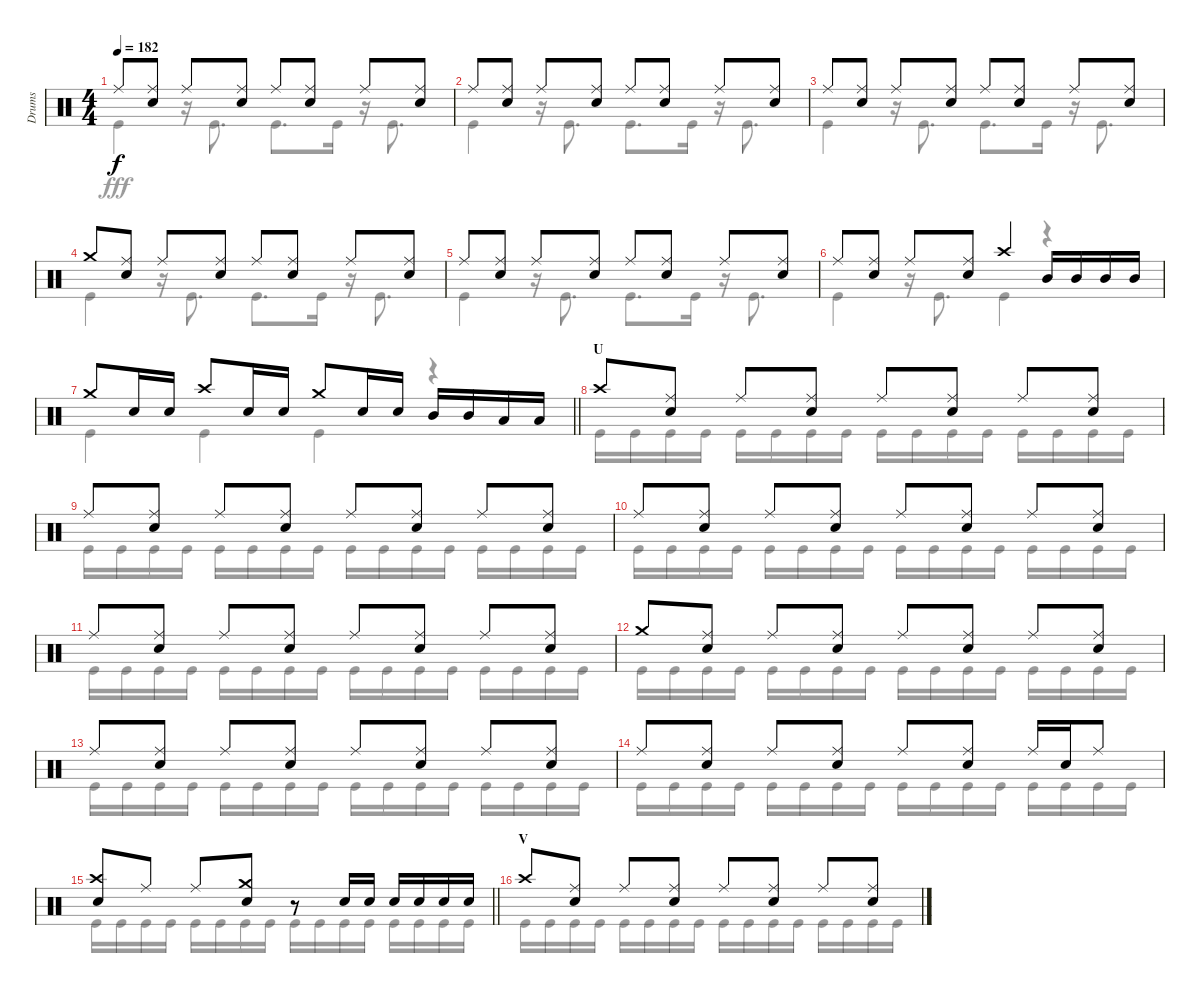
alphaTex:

\track ("Drums" "Drums") {instrument percussion}
\staff {score}
\articulation defaults
\voice
\ts (4 4)
\tempo 182
\clef neutral
\ks c "Ride (middle)".8{dy f}
("Ride (middle)" "Snare (hit) 2").8 "Ride (middle)".8 ("Ride (middle)" "Snare (hit) 2").8 "Ride (middle)".8 ("Ride (middle)" "Snare (hit) 2").8 "Ride (middle)".8 ("Ride (middle)" "Snare (hit) 2").8 |
"Ride (middle)".8 ("Ride (middle)" "Snare (hit) 2").8 "Ride (middle)".8 ("Ride (middle)" "Snare (hit) 2").8 "Ride (middle)".8 ("Ride (middle)" "Snare (hit) 2").8 "Ride (middle)".8 ("Ride (middle)" "Snare (hit) 2").8 |
"Ride (middle)".8 ("Ride (middle)" "Snare (hit) 2").8 "Ride (middle)".8 ("Ride (middle)" "Snare (hit) 2").8 "Ride (middle)".8 ("Ride (middle)" "Snare (hit) 2").8 "Ride (middle)".8 ("Ride (middle)" "Snare (hit) 2").8 |
"Crash medium (hit)".8 ("Ride (middle)" "Snare (hit) 2").8 "Ride (middle)".8 ("Ride (middle)" "Snare (hit) 2").8 "Ride (middle)".8 ("Ride (middle)" "Snare (hit) 2").8 "Ride (middle)".8 ("Ride (middle)" "Snare (hit) 2").8 |
"Ride (middle)".8 ("Ride (middle)" "Snare (hit) 2").8 "Ride (middle)".8 ("Ride (middle)" "Snare (hit) 2").8 "Ride (middle)".8 ("Ride (middle)" "Snare (hit) 2").8 "Ride (middle)".8 ("Ride (middle)" "Snare (hit) 2").8 |
"Ride (middle)".8 ("Ride (middle)" "Snare (hit) 2").8 "Ride (middle)".8 ("Ride (middle)" "Snare (hit) 2").8 "Crash high (hit)".4 "Mid Tom (hit)".16 "Mid Tom (hit)".16 "Mid Tom (hit)".16 "Mid Tom (hit)".16 |
\barLineRight lightlight "Crash medium (hit)".8 "Snare (hit) 2".16 "Snare (hit) 2".16 "Crash high (hit)".8 "Snare (hit) 2".16 "Snare (hit) 2".16 "Crash medium (hit)".8 "Snare (hit) 2".16 "Snare (hit) 2".16 "Mid Tom (hit)".16 "Mid Tom (hit)".16 "Low Tom (hit)".16 "Low Tom (hit)".16
|
\section ("" "U")
"Crash high (hit)".8 ("Ride (middle)" "Snare (hit) 2").8 "Ride (middle)".8 ("Ride (middle)" "Snare (hit) 2").8 "Ride (middle)".8 ("Ride (middle)" "Snare (hit) 2").8 "Ride (middle)".8 ("Ride (middle)" "Snare (hit) 2").8 |
"Ride (middle)".8 ("Ride (middle)" "Snare (hit) 2").8 "Ride (middle)".8 ("Ride (middle)" "Snare (hit) 2").8 "Ride (middle)".8 ("Ride (middle)" "Snare (hit) 2").8 "Ride (middle)".8 ("Ride (middle)" "Snare (hit) 2").8 |
"Ride (middle)".8 ("Ride (middle)" "Snare (hit) 2").8 "Ride (middle)".8 ("Ride (middle)" "Snare (hit) 2").8 "Ride (middle)".8 ("Ride (middle)" "Snare (hit) 2").8 "Ride (middle)".8 ("Ride (middle)" "Snare (hit) 2").8 |
"Ride (middle)".8 ("Ride (middle)" "Snare (hit) 2").8 "Ride (middle)".8 ("Ride (middle)" "Snare (hit) 2").8 "Ride (middle)".8 ("Ride (middle)" "Snare (hit) 2").8 "Ride (middle)".8 ("Ride (middle)" "Snare (hit) 2").8 |
"Crash medium (hit)".8 ("Ride (middle)" "Snare (hit) 2").8 "Ride (middle)".8 ("Ride (middle)" "Snare (hit) 2").8 "Ride (middle)".8 ("Ride (middle)" "Snare (hit) 2").8 "Ride (middle)".8 ("Ride (middle)" "Snare (hit) 2").8 |
"Ride (middle)".8 ("Ride (middle)" "Snare (hit) 2").8 "Ride (middle)".8 ("Ride (middle)" "Snare (hit) 2").8 "Ride (middle)".8 ("Ride (middle)" "Snare (hit) 2").8 "Ride (middle)".8 ("Ride (middle)" "Snare (hit) 2").8 |
"Ride (middle)".8 ("Ride (middle)" "Snare (hit) 2").8 "Ride (middle)".8 ("Ride (middle)" "Snare (hit) 2").8 "Ride (middle)".8 ("Ride (middle)" "Snare (hit) 2").8 "Ride (middle)".16 "Snare (hit) 2".16 "Ride (middle)".8 |
\barLineRight lightlight
("Crash high (hit)" "Snare (hit) 2").8 "Ride (middle)".8 "Ride (middle)".8 ("Crash medium (hit)" "Snare (hit) 2").8 r.8 "Snare (hit) 2".16 "Snare (hit) 2".16 "Snare (hit) 2".16 "Snare (hit) 2".16 "Snare (hit) 2".16 "Snare (hit) 2".16 |
\section ("" "V")
"Crash high (hit)".8 ("Ride (middle)" "Snare (hit) 2").8 "Ride (middle)".8 ("Ride (middle)" "Snare (hit) 2").8 "Ride (middle)".8 ("Ride (middle)" "Snare (hit) 2").8 "Ride (middle)".8 ("Ride (middle)" "Snare (hit) 2").8
\voice
\clef neutral
\ottava regular
\simile none
\ks c "Kick (hit)".4{dy fff}
r.16 "Kick (hit)".8{d} "Kick (hit)".8{d} "Kick (hit)".16 r.16 "Kick (hit)".8{d} |
"Kick (hit)".4 r.16 "Kick (hit)".8{d} "Kick (hit)".8{d} "Kick (hit)".16 r.16 "Kick (hit)".8{d} |
"Kick (hit)".4 r.16 "Kick (hit)".8{d} "Kick (hit)".8{d} "Kick (hit)".16 r.16 "Kick (hit)".8{d} |
"Kick (hit)".4 r.16 "Kick (hit)".8{d} "Kick (hit)".8{d} "Kick (hit)".16 r.16 "Kick (hit)".8{d} |
"Kick (hit)".4 r.16 "Kick (hit)".8{d} "Kick (hit)".8{d} "Kick (hit)".16 r.16 "Kick (hit)".8{d} |
"Kick (hit)".4 r.16 "Kick (hit)".8{d} "Kick (hit)".4 r.4 |
\barLineRight lightlight "Kick (hit)".4 "Kick (hit)".4 "Kick (hit)".4
r.4 |
"Kick (hit)".16 "Kick (hit)".16 "Kick (hit)".16 "Kick (hit)".16 "Kick (hit)".16 "Kick (hit)".16 "Kick (hit)".16 "Kick (hit)".16 "Kick (hit)".16 "Kick (hit)".16 "Kick (hit)".16 "Kick (hit)".16 "Kick (hit)".16 "Kick (hit)".16 "Kick (hit)".16 "Kick (hit)".16 |
"Kick (hit)".16 "Kick (hit)".16 "Kick (hit)".16 "Kick (hit)".16 "Kick (hit)".16 "Kick (hit)".16 "Kick (hit)".16 "Kick (hit)".16 "Kick (hit)".16 "Kick (hit)".16 "Kick (hit)".16 "Kick (hit)".16 "Kick (hit)".16 "Kick (hit)".16 "Kick (hit)".16 "Kick (hit)".16 |
"Kick (hit)".16 "Kick (hit)".16 "Kick (hit)".16 "Kick (hit)".16 "Kick (hit)".16 "Kick (hit)".16 "Kick (hit)".16 "Kick (hit)".16 "Kick (hit)".16 "Kick (hit)".16 "Kick (hit)".16 "Kick (hit)".16 "Kick (hit)".16 "Kick (hit)".16 "Kick (hit)".16 "Kick (hit)".16 |
"Kick (hit)".16 "Kick (hit)".16 "Kick (hit)".16 "Kick (hit)".16 "Kick (hit)".16 "Kick (hit)".16 "Kick (hit)".16 "Kick (hit)".16 "Kick (hit)".16 "Kick (hit)".16 "Kick (hit)".16 "Kick (hit)".16 "Kick (hit)".16 "Kick (hit)".16 "Kick (hit)".16 "Kick (hit)".16 |
"Kick (hit)".16 "Kick (hit)".16 "Kick (hit)".16 "Kick (hit)".16 "Kick (hit)".16 "Kick (hit)".16 "Kick (hit)".16 "Kick (hit)".16 "Kick (hit)".16 "Kick (hit)".16 "Kick (hit)".16 "Kick (hit)".16 "Kick (hit)".16 "Kick (hit)".16 "Kick (hit)".16 "Kick (hit)".16 |
"Kick (hit)".16 "Kick (hit)".16 "Kick (hit)".16 "Kick (hit)".16 "Kick (hit)".16 "Kick (hit)".16 "Kick (hit)".16 "Kick (hit)".16 "Kick (hit)".16 "Kick (hit)".16 "Kick (hit)".16 "Kick (hit)".16 "Kick (hit)".16 "Kick (hit)".16 "Kick (hit)".16 "Kick (hit)".16 |
"Kick (hit)".16 "Kick (hit)".16 "Kick (hit)".16 "Kick (hit)".16 "Kick (hit)".16 "Kick (hit)".16 "Kick (hit)".16 "Kick (hit)".16 "Kick (hit)".16 "Kick (hit)".16 "Kick (hit)".16 "Kick (hit)".16 "Kick (hit)".16 "Kick (hit)".16 "Kick (hit)".16 "Kick (hit)".16 |
\barLineRight lightlight "Kick (hit)".16 "Kick (hit)".16 "Kick (hit)".16 "Kick (hit)".16 "Kick (hit)".16 "Kick (hit)".16 "Kick (hit)".16 "Kick (hit)".16 "Kick (hit)".16 "Kick (hit)".16 "Kick (hit)".16 "Kick (hit)".16 "Kick (hit)".16 "Kick (hit)".16 "Kick (hit)".16 "Kick (hit)".16
|
"Kick (hit)".16 "Kick (hit)".16 "Kick (hit)".16 "Kick (hit)".16 "Kick (hit)".16 "Kick (hit)".16 "Kick (hit)".16 "Kick (hit)".16 "Kick (hit)".16 "Kick (hit)".16 "Kick (hit)".16 "Kick (hit)".16 "Kick (hit)".16 "Kick (hit)".16 "Kick (hit)".16 "Kick (hit)".16
